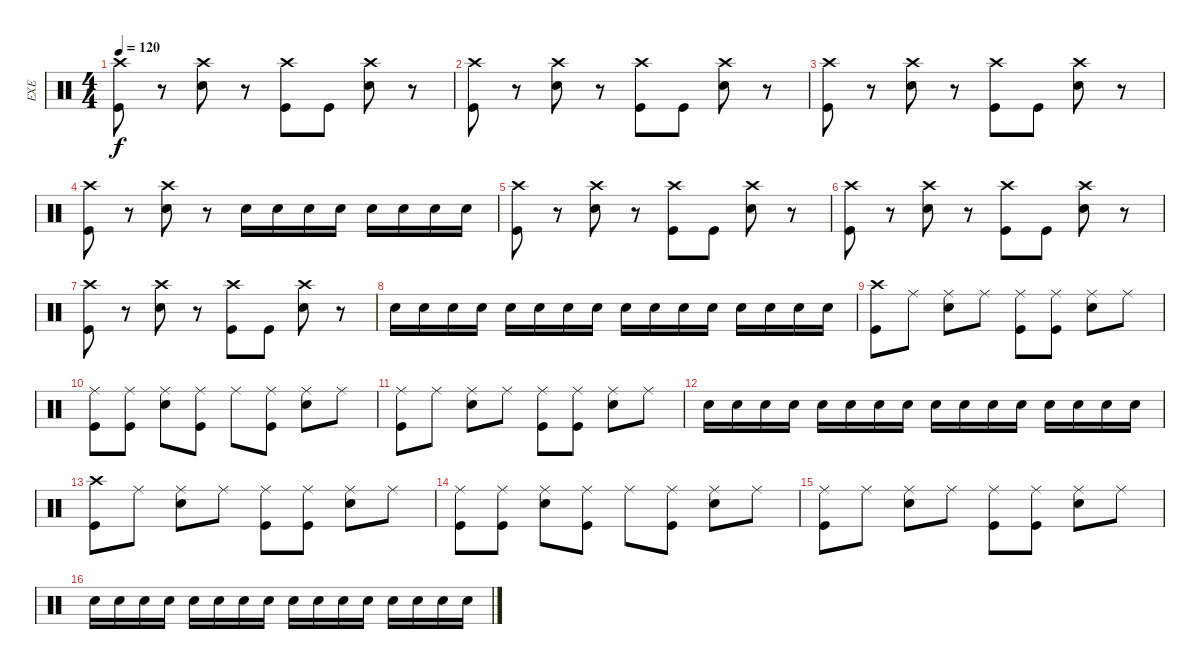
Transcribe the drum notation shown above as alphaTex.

\track ("EXE" "EXE") {instrument percussion}
\staff {score}
\articulation defaults
\ts (4 4)
\tempo 120
\clef neutral
\ks c
("Kick (hit)" "Crash high (hit)").8{dy f} r.8 ("Snare (hit) 2" "Crash high (hit)").8 r.8 ("Kick (hit)" "Crash high (hit)").8 "Kick (hit)".8 ("Snare (hit) 2" "Crash high (hit)").8 r.8 |
("Kick (hit)" "Crash high (hit)").8 r.8 ("Snare (hit) 2" "Crash high (hit)").8 r.8 ("Kick (hit)" "Crash high (hit)").8 "Kick (hit)".8 ("Snare (hit) 2" "Crash high (hit)").8 r.8 |
("Kick (hit)" "Crash high (hit)").8 r.8 ("Snare (hit) 2" "Crash high (hit)").8 r.8 ("Kick (hit)" "Crash high (hit)").8 "Kick (hit)".8 ("Snare (hit) 2" "Crash high (hit)").8 r.8 |
("Kick (hit)" "Crash high (hit)").8 r.8 ("Snare (hit) 2" "Crash high (hit)").8 r.8 "Snare (hit) 2".16 "Snare (hit) 2".16 "Snare (hit) 2".16 "Snare (hit) 2".16 "Snare (hit) 2".16 "Snare (hit) 2".16 "Snare (hit) 2".16 "Snare (hit) 2".16 |
("Kick (hit)" "Crash high (hit)").8 r.8 ("Snare (hit) 2" "Crash high (hit)").8 r.8 ("Kick (hit)" "Crash high (hit)").8 "Kick (hit)".8 ("Snare (hit) 2" "Crash high (hit)").8 r.8 |
("Kick (hit)" "Crash high (hit)").8 r.8 ("Snare (hit) 2" "Crash high (hit)").8 r.8 ("Kick (hit)" "Crash high (hit)").8 "Kick (hit)".8 ("Snare (hit) 2" "Crash high (hit)").8 r.8 |
("Kick (hit)" "Crash high (hit)").8 r.8 ("Snare (hit) 2" "Crash high (hit)").8 r.8 ("Kick (hit)" "Crash high (hit)").8 "Kick (hit)".8 ("Snare (hit) 2" "Crash high (hit)").8 r.8 |
"Snare (hit) 2".16 "Snare (hit) 2".16 "Snare (hit) 2".16 "Snare (hit) 2".16 "Snare (hit) 2".16 "Snare (hit) 2".16 "Snare (hit) 2".16 "Snare (hit) 2".16 "Snare (hit) 2".16 "Snare (hit) 2".16 "Snare (hit) 2".16 "Snare (hit) 2".16 "Snare (hit) 2".16 "Snare (hit) 2".16 "Snare (hit) 2".16 "Snare (hit) 2".16 |
("Kick (hit)" "Crash high (hit)").8 "Ride (middle)".8 ("Snare (hit) 2" "Ride (middle)").8 "Ride (middle)".8 ("Kick (hit)" "Ride (middle)").8 ("Kick (hit)" "Ride (middle)").8 ("Snare (hit) 2" "Ride (middle)").8 "Ride (middle)".8 |
("Kick (hit)" "Ride (middle)").8 ("Kick (hit)" "Ride (middle)").8 ("Snare (hit) 2" "Ride (middle)").8 ("Kick (hit)" "Ride (middle)").8 "Ride (middle)".8 ("Kick (hit)" "Ride (middle)").8 ("Snare (hit) 2" "Ride (middle)").8 "Ride (middle)".8 |
("Kick (hit)" "Ride (middle)").8 "Ride (middle)".8 ("Snare (hit) 2" "Ride (middle)").8 "Ride (middle)".8 ("Kick (hit)" "Ride (middle)").8 ("Kick (hit)" "Ride (middle)").8 ("Snare (hit) 2" "Ride (middle)").8 "Ride (middle)".8 |
"Snare (hit) 2".16 "Snare (hit) 2".16 "Snare (hit) 2".16 "Snare (hit) 2".16 "Snare (hit) 2".16 "Snare (hit) 2".16 "Snare (hit) 2".16 "Snare (hit) 2".16 "Snare (hit) 2".16 "Snare (hit) 2".16 "Snare (hit) 2".16 "Snare (hit) 2".16 "Snare (hit) 2".16 "Snare (hit) 2".16 "Snare (hit) 2".16 "Snare (hit) 2".16 |
("Kick (hit)" "Crash high (hit)").8 "Ride (middle)".8 ("Snare (hit) 2" "Ride (middle)").8 "Ride (middle)".8 ("Kick (hit)" "Ride (middle)").8 ("Kick (hit)" "Ride (middle)").8 ("Snare (hit) 2" "Ride (middle)").8 "Ride (middle)".8 |
("Kick (hit)" "Ride (middle)").8 ("Kick (hit)" "Ride (middle)").8 ("Snare (hit) 2" "Ride (middle)").8 ("Kick (hit)" "Ride (middle)").8 "Ride (middle)".8 ("Kick (hit)" "Ride (middle)").8 ("Snare (hit) 2" "Ride (middle)").8 "Ride (middle)".8 |
("Kick (hit)" "Ride (middle)").8 "Ride (middle)".8 ("Snare (hit) 2" "Ride (middle)").8 "Ride (middle)".8 ("Kick (hit)" "Ride (middle)").8 ("Kick (hit)" "Ride (middle)").8 ("Snare (hit) 2" "Ride (middle)").8 "Ride (middle)".8 |
"Snare (hit) 2".16 "Snare (hit) 2".16 "Snare (hit) 2".16 "Snare (hit) 2".16 "Snare (hit) 2".16 "Snare (hit) 2".16 "Snare (hit) 2".16 "Snare (hit) 2".16 "Snare (hit) 2".16 "Snare (hit) 2".16 "Snare (hit) 2".16 "Snare (hit) 2".16 "Snare (hit) 2".16 "Snare (hit) 2".16 "Snare (hit) 2".16 "Snare (hit) 2".16
